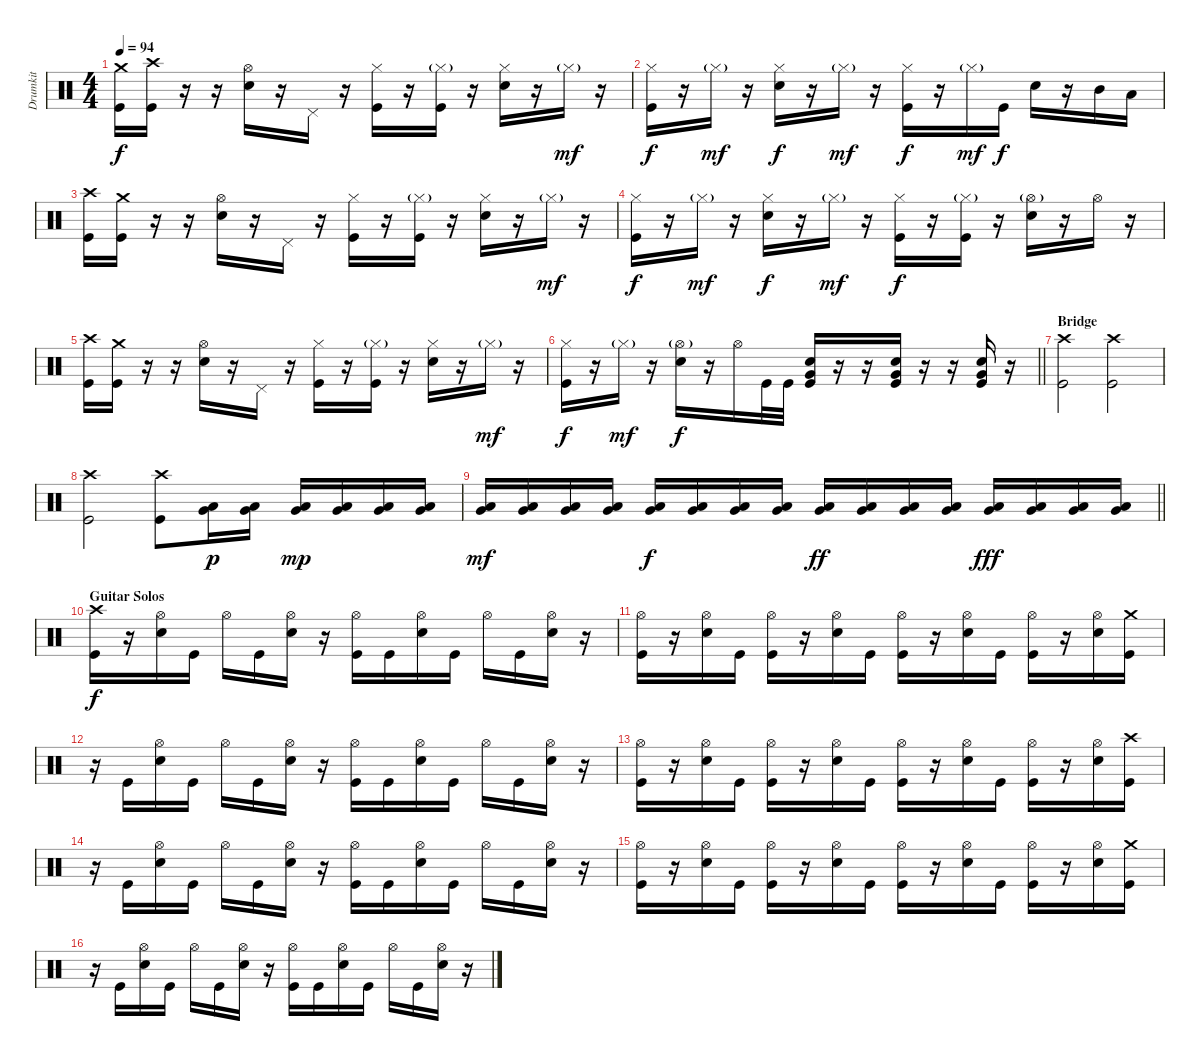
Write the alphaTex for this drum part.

\track ("Drumkit" "Drumkit") {instrument percussion}
\staff {score}
\articulation defaults
\ts (4 4)
\tempo 94
\clef neutral
\ks c
("Crash medium (hit)" "Kick (hit)").16{dy f} ("Crash high (hit)" "Kick (hit)").16 r.16 r.16 ("Hi-Hat (open)" "Snare (hit) 2").16 r.16 "Pedal Hi-Hat (hit)".16 r.16 ("Hi-Hat (closed)" "Kick (hit)").16 r.16 ("Hi-Hat (closed)"{g} "Kick (hit)").16 r.16 ("Hi-Hat (closed)" "Snare (hit) 2").16 r.16 "Hi-Hat (closed)"{g}.16{dy mf} r.16 |
("Hi-Hat (closed)" "Kick (hit)").16{dy f} r.16 "Hi-Hat (closed)"{g}.16{dy mf} r.16 ("Hi-Hat (closed)" "Snare (hit) 2").16{dy f} r.16 "Hi-Hat (closed)"{g}.16{dy mf} r.16 ("Hi-Hat (closed)" "Kick (hit)").16{dy f} r.16 "Hi-Hat (closed)"{g}.16{dy mf} "Kick (hit)".16{dy f} "Snare (hit) 2".16 r.16 "Mid Tom (hit)".16 "Low Tom (hit)".16 |
("Crash high (hit)" "Kick (hit)").16 ("Crash medium (hit)" "Kick (hit)").16 r.16 r.16 ("Hi-Hat (open)" "Snare (hit) 2").16 r.16 "Pedal Hi-Hat (hit)".16 r.16 ("Hi-Hat (closed)" "Kick (hit)").16 r.16 ("Hi-Hat (closed)"{g} "Kick (hit)").16 r.16 ("Hi-Hat (closed)" "Snare (hit) 2").16 r.16 "Hi-Hat (closed)"{g}.16{dy mf} r.16 |
("Hi-Hat (closed)" "Kick (hit)").16{dy f} r.16 "Hi-Hat (closed)"{g}.16{dy mf} r.16 ("Hi-Hat (closed)" "Snare (hit) 2").16{dy f} r.16 "Hi-Hat (closed)"{g}.16{dy mf} r.16 ("Hi-Hat (closed)" "Kick (hit)").16{dy f} r.16 ("Hi-Hat (closed)"{g} "Kick (hit)").16 r.16 ("Hi-Hat (open)"{g} "Snare (hit) 2").16 r.16 "Hi-Hat (open)".16 r.16 |
("Crash high (hit)" "Kick (hit)").16 ("Crash medium (hit)" "Kick (hit)").16 r.16 r.16 ("Hi-Hat (open)" "Snare (hit) 2").16 r.16 "Pedal Hi-Hat (hit)".16 r.16 ("Hi-Hat (closed)" "Kick (hit)").16 r.16 ("Hi-Hat (closed)"{g} "Kick (hit)").16 r.16 ("Hi-Hat (closed)" "Snare (hit) 2").16 r.16 "Hi-Hat (closed)"{g}.16{dy mf} r.16 |
\barLineRight lightlight
("Hi-Hat (closed)" "Kick (hit)").16{dy f} r.16 "Hi-Hat (closed)"{g}.16{dy mf} r.16 ("Hi-Hat (open)"{g} "Snare (hit) 2").16{dy f} r.16 "Hi-Hat (open)".16 "Kick (hit)".32 "Kick (hit)".32 ("Very Low Tom (hit)" "Snare (hit) 2" "Kick (hit)").16 r.16 r.16 ("Very Low Tom (hit)" "Snare (hit) 2" "Kick (hit)").16 r.16 r.16 ("Very Low Tom (hit)" "Snare (hit) 2" "Kick (hit)").16 r.16 |
\section ("" "Bridge")
("Crash high (hit)" "Kick (hit)").2 ("Crash high (hit)" "Kick (hit)").2 |
("Crash high (hit)" "Kick (hit)").2 ("Crash high (hit)" "Kick (hit)").8 ("Very Low Tom (hit)" "Low Floor Tom (hit)").16{dy p} ("Very Low Tom (hit)" "Low Floor Tom (hit)").16 ("Very Low Tom (hit)" "Low Floor Tom (hit)").16{dy mp} ("Very Low Tom (hit)" "Low Floor Tom (hit)").16 ("Very Low Tom (hit)" "Low Floor Tom (hit)").16 ("Very Low Tom (hit)" "Low Floor Tom (hit)").16 |
\barLineRight lightlight
("Very Low Tom (hit)" "Low Floor Tom (hit)").16{dy mf} ("Very Low Tom (hit)" "Low Floor Tom (hit)").16 ("Very Low Tom (hit)" "Low Floor Tom (hit)").16 ("Very Low Tom (hit)" "Low Floor Tom (hit)").16 ("Very Low Tom (hit)" "Low Floor Tom (hit)").16{dy f} ("Very Low Tom (hit)" "Low Floor Tom (hit)").16 ("Very Low Tom (hit)" "Low Floor Tom (hit)").16 ("Very Low Tom (hit)" "Low Floor Tom (hit)").16 ("Very Low Tom (hit)" "Low Floor Tom (hit)").16{dy ff} ("Very Low Tom (hit)" "Low Floor Tom (hit)").16 ("Very Low Tom (hit)" "Low Floor Tom (hit)").16 ("Very Low Tom (hit)" "Low Floor Tom (hit)").16 ("Very Low Tom (hit)" "Low Floor Tom (hit)").16{dy fff} ("Very Low Tom (hit)" "Low Floor Tom (hit)").16 ("Very Low Tom (hit)" "Low Floor Tom (hit)").16 ("Very Low Tom (hit)" "Low Floor Tom (hit)").16 |
\section ("" "Guitar Solos")
("Crash high (hit)" "Kick (hit)").16{dy f} r.16 ("Hi-Hat (open)" "Snare (hit) 2").16 "Kick (hit)".16 "Hi-Hat (open)".16 "Kick (hit)".16 ("Hi-Hat (open)" "Snare (hit) 2").16 r.16 ("Hi-Hat (open)" "Kick (hit)").16 "Kick (hit)".16 ("Hi-Hat (open)" "Snare (hit) 2").16 "Kick (hit)".16 "Hi-Hat (open)".16 "Kick (hit)".16 ("Hi-Hat (open)" "Snare (hit) 2").16 r.16 |
("Hi-Hat (open)" "Kick (hit)").16 r.16 ("Hi-Hat (open)" "Snare (hit) 2").16 "Kick (hit)".16 ("Hi-Hat (open)" "Kick (hit)").16 r.16 ("Hi-Hat (open)" "Snare (hit) 2").16 "Kick (hit)".16 ("Hi-Hat (open)" "Kick (hit)").16 r.16 ("Hi-Hat (open)" "Snare (hit) 2").16 "Kick (hit)".16 ("Hi-Hat (open)" "Kick (hit)").16 r.16 ("Hi-Hat (open)" "Snare (hit) 2").16 ("Crash medium (hit)" "Kick (hit)").16 |
r.16 "Kick (hit)".16 ("Hi-Hat (open)" "Snare (hit) 2").16 "Kick (hit)".16 "Hi-Hat (open)".16 "Kick (hit)".16 ("Hi-Hat (open)" "Snare (hit) 2").16 r.16 ("Hi-Hat (open)" "Kick (hit)").16 "Kick (hit)".16 ("Hi-Hat (open)" "Snare (hit) 2").16 "Kick (hit)".16 "Hi-Hat (open)".16 "Kick (hit)".16 ("Hi-Hat (open)" "Snare (hit) 2").16 r.16 |
("Hi-Hat (open)" "Kick (hit)").16 r.16 ("Hi-Hat (open)" "Snare (hit) 2").16 "Kick (hit)".16 ("Hi-Hat (open)" "Kick (hit)").16 r.16 ("Hi-Hat (open)" "Snare (hit) 2").16 "Kick (hit)".16 ("Hi-Hat (open)" "Kick (hit)").16 r.16 ("Hi-Hat (open)" "Snare (hit) 2").16 "Kick (hit)".16 ("Hi-Hat (open)" "Kick (hit)").16 r.16 ("Hi-Hat (open)" "Snare (hit) 2").16 ("Crash high (hit)" "Kick (hit)").16 |
r.16 "Kick (hit)".16 ("Hi-Hat (open)" "Snare (hit) 2").16 "Kick (hit)".16 "Hi-Hat (open)".16 "Kick (hit)".16 ("Hi-Hat (open)" "Snare (hit) 2").16 r.16 ("Hi-Hat (open)" "Kick (hit)").16 "Kick (hit)".16 ("Hi-Hat (open)" "Snare (hit) 2").16 "Kick (hit)".16 "Hi-Hat (open)".16 "Kick (hit)".16 ("Hi-Hat (open)" "Snare (hit) 2").16 r.16 |
("Hi-Hat (open)" "Kick (hit)").16 r.16 ("Hi-Hat (open)" "Snare (hit) 2").16 "Kick (hit)".16 ("Hi-Hat (open)" "Kick (hit)").16 r.16 ("Hi-Hat (open)" "Snare (hit) 2").16 "Kick (hit)".16 ("Hi-Hat (open)" "Kick (hit)").16 r.16 ("Hi-Hat (open)" "Snare (hit) 2").16 "Kick (hit)".16 ("Hi-Hat (open)" "Kick (hit)").16 r.16 ("Hi-Hat (open)" "Snare (hit) 2").16 ("Crash medium (hit)" "Kick (hit)").16 |
r.16 "Kick (hit)".16 ("Hi-Hat (open)" "Snare (hit) 2").16 "Kick (hit)".16 "Hi-Hat (open)".16 "Kick (hit)".16 ("Hi-Hat (open)" "Snare (hit) 2").16 r.16 ("Hi-Hat (open)" "Kick (hit)").16 "Kick (hit)".16 ("Hi-Hat (open)" "Snare (hit) 2").16 "Kick (hit)".16 "Hi-Hat (open)".16 "Kick (hit)".16 ("Hi-Hat (open)" "Snare (hit) 2").16 r.16
